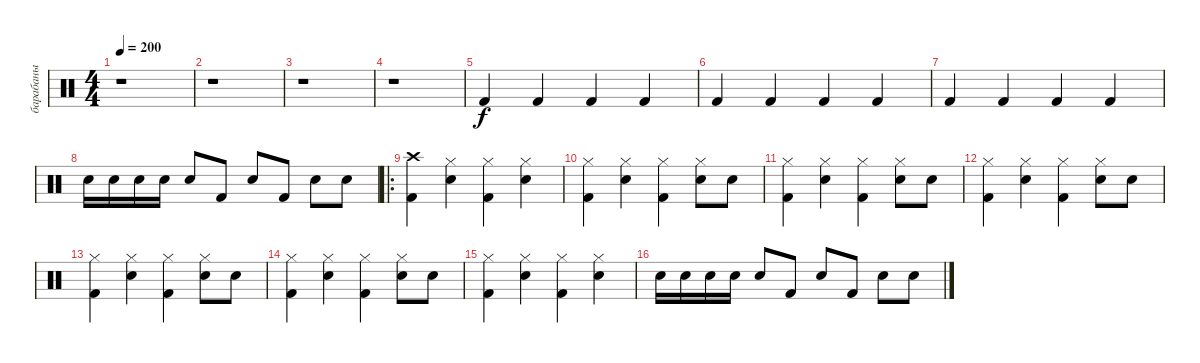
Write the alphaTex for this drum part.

\track ("барабаны" "барабаны") {instrument percussion}
\staff {score}
\articulation defaults
\ts (4 4)
\tempo 200
\clef neutral
\ks c
r.1{dy f} |
r.1 |
r.1 |
r.1 |
"Kick (hit) 2".4 "Kick (hit) 2".4 "Kick (hit) 2".4 "Kick (hit) 2".4 |
"Kick (hit) 2".4 "Kick (hit) 2".4 "Kick (hit) 2".4 "Kick (hit) 2".4 |
"Kick (hit) 2".4 "Kick (hit) 2".4 "Kick (hit) 2".4 "Kick (hit) 2".4 |
"Snare (hit) 2".16 "Snare (hit) 2".16 "Snare (hit) 2".16 "Snare (hit) 2".16 "Snare (hit) 2".8 "Kick (hit) 2".8 "Snare (hit) 2".8 "Kick (hit) 2".8 "Snare (hit) 2".8 "Snare (hit) 2".8 |
\ro
("Crash high (hit)" "Kick (hit) 2").4 ("Hi-Hat (closed)" "Snare (hit) 2").4 ("Hi-Hat (closed)" "Kick (hit) 2").4 ("Hi-Hat (closed)" "Snare (hit) 2").4 |
("Hi-Hat (closed)" "Kick (hit) 2").4 ("Hi-Hat (closed)" "Snare (hit) 2").4 ("Hi-Hat (closed)" "Kick (hit) 2").4 ("Hi-Hat (closed)" "Snare (hit) 2").8 "Snare (hit) 2".8 |
("Hi-Hat (closed)" "Kick (hit) 2").4 ("Hi-Hat (closed)" "Snare (hit) 2").4 ("Hi-Hat (closed)" "Kick (hit) 2").4 ("Hi-Hat (closed)" "Snare (hit) 2").8 "Snare (hit) 2".8 |
("Hi-Hat (closed)" "Kick (hit) 2").4 ("Hi-Hat (closed)" "Snare (hit) 2").4 ("Hi-Hat (closed)" "Kick (hit) 2").4 ("Hi-Hat (closed)" "Snare (hit) 2").8 "Snare (hit) 2".8 |
("Hi-Hat (closed)" "Kick (hit) 2").4 ("Hi-Hat (closed)" "Snare (hit) 2").4 ("Hi-Hat (closed)" "Kick (hit) 2").4 ("Hi-Hat (closed)" "Snare (hit) 2").8 "Snare (hit) 2".8 |
("Hi-Hat (closed)" "Kick (hit) 2").4 ("Hi-Hat (closed)" "Snare (hit) 2").4 ("Hi-Hat (closed)" "Kick (hit) 2").4 ("Hi-Hat (closed)" "Snare (hit) 2").8 "Snare (hit) 2".8 |
("Hi-Hat (closed)" "Kick (hit) 2").4 ("Hi-Hat (closed)" "Snare (hit) 2").4 ("Hi-Hat (closed)" "Kick (hit) 2").4 ("Hi-Hat (closed)" "Snare (hit) 2").4 |
"Snare (hit) 2".16 "Snare (hit) 2".16 "Snare (hit) 2".16 "Snare (hit) 2".16 "Snare (hit) 2".8 "Kick (hit) 2".8 "Snare (hit) 2".8 "Kick (hit) 2".8 "Snare (hit) 2".8 "Snare (hit) 2".8
